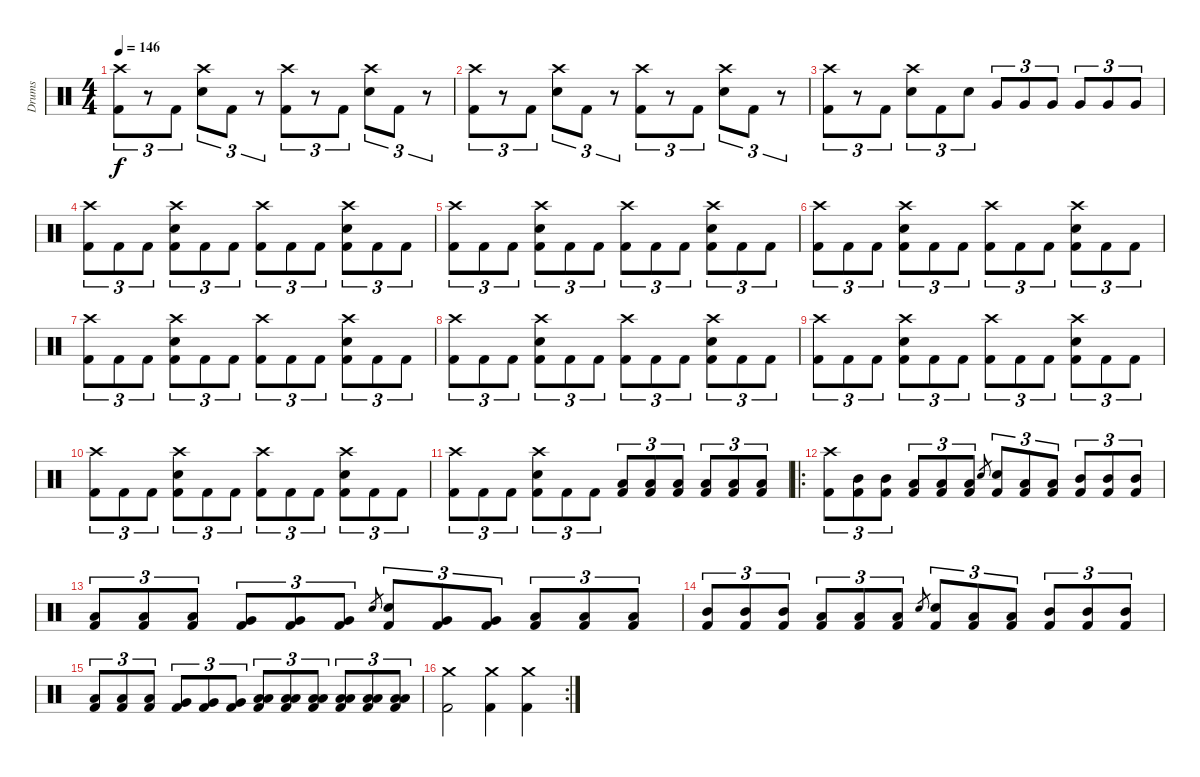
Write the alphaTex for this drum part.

\track ("Drums" "Drums") {instrument percussion}
\staff {score}
\articulation defaults
\ts (4 4)
\tempo 146
\clef neutral
\ks c
("Crash high (hit)" "Kick (hit) 2").8{tu (3 2) dy f} r.8{tu (3 2)} "Kick (hit) 2".8{tu (3 2)} ("Crash high (hit)" "Snare (hit) 2").8{tu (3 2)} "Kick (hit) 2".8{tu (3 2)} r.8{tu (3 2)} ("Crash high (hit)" "Kick (hit) 2").8{tu (3 2)} r.8{tu (3 2)} "Kick (hit) 2".8{tu (3 2)} ("Crash high (hit)" "Snare (hit) 2").8{tu (3 2)} "Kick (hit) 2".8{tu (3 2)} r.8{tu (3 2)} |
("Crash high (hit)" "Kick (hit) 2").8{tu (3 2)} r.8{tu (3 2)} "Kick (hit) 2".8{tu (3 2)} ("Crash high (hit)" "Snare (hit) 2").8{tu (3 2)} "Kick (hit) 2".8{tu (3 2)} r.8{tu (3 2)} ("Crash high (hit)" "Kick (hit) 2").8{tu (3 2)} r.8{tu (3 2)} "Kick (hit) 2".8{tu (3 2)} ("Crash high (hit)" "Snare (hit) 2").8{tu (3 2)} "Kick (hit) 2".8{tu (3 2)} r.8{tu (3 2)} |
("Crash high (hit)" "Kick (hit) 2").8{tu (3 2)} r.8{tu (3 2)} "Kick (hit) 2".8{tu (3 2)} ("Crash high (hit)" "Snare (hit) 2").8{tu (3 2)} "Kick (hit) 2".8{tu (3 2)} "Snare (hit) 2".8{tu (3 2)} "Very Low Tom (hit)".8{tu (3 2)} "Very Low Tom (hit)".8{tu (3 2)} "Very Low Tom (hit)".8{tu (3 2)} "Very Low Tom (hit)".8{tu (3 2)} "Very Low Tom (hit)".8{tu (3 2)} "Very Low Tom (hit)".8{tu (3 2)} |
("Crash high (hit)" "Kick (hit) 2").8{tu (3 2)} "Kick (hit) 2".8{tu (3 2)} "Kick (hit) 2".8{tu (3 2)} ("Crash high (hit)" "Snare (hit) 2" "Kick (hit) 2").8{tu (3 2)} "Kick (hit) 2".8{tu (3 2)} "Kick (hit) 2".8{tu (3 2)} ("Crash high (hit)" "Kick (hit) 2").8{tu (3 2)} "Kick (hit) 2".8{tu (3 2)} "Kick (hit) 2".8{tu (3 2)} ("Crash high (hit)" "Snare (hit) 2" "Kick (hit) 2").8{tu (3 2)} "Kick (hit) 2".8{tu (3 2)} "Kick (hit) 2".8{tu (3 2)} |
("Crash high (hit)" "Kick (hit) 2").8{tu (3 2)} "Kick (hit) 2".8{tu (3 2)} "Kick (hit) 2".8{tu (3 2)} ("Crash high (hit)" "Snare (hit) 2" "Kick (hit) 2").8{tu (3 2)} "Kick (hit) 2".8{tu (3 2)} "Kick (hit) 2".8{tu (3 2)} ("Crash high (hit)" "Kick (hit) 2").8{tu (3 2)} "Kick (hit) 2".8{tu (3 2)} "Kick (hit) 2".8{tu (3 2)} ("Crash high (hit)" "Snare (hit) 2" "Kick (hit) 2").8{tu (3 2)} "Kick (hit) 2".8{tu (3 2)} "Kick (hit) 2".8{tu (3 2)} |
("Crash high (hit)" "Kick (hit) 2").8{tu (3 2)} "Kick (hit) 2".8{tu (3 2)} "Kick (hit) 2".8{tu (3 2)} ("Crash high (hit)" "Snare (hit) 2" "Kick (hit) 2").8{tu (3 2)} "Kick (hit) 2".8{tu (3 2)} "Kick (hit) 2".8{tu (3 2)} ("Crash high (hit)" "Kick (hit) 2").8{tu (3 2)} "Kick (hit) 2".8{tu (3 2)} "Kick (hit) 2".8{tu (3 2)} ("Crash high (hit)" "Snare (hit) 2" "Kick (hit) 2").8{tu (3 2)} "Kick (hit) 2".8{tu (3 2)} "Kick (hit) 2".8{tu (3 2)} |
("Crash high (hit)" "Kick (hit) 2").8{tu (3 2)} "Kick (hit) 2".8{tu (3 2)} "Kick (hit) 2".8{tu (3 2)} ("Crash high (hit)" "Snare (hit) 2" "Kick (hit) 2").8{tu (3 2)} "Kick (hit) 2".8{tu (3 2)} "Kick (hit) 2".8{tu (3 2)} ("Crash high (hit)" "Kick (hit) 2").8{tu (3 2)} "Kick (hit) 2".8{tu (3 2)} "Kick (hit) 2".8{tu (3 2)} ("Crash high (hit)" "Snare (hit) 2" "Kick (hit) 2").8{tu (3 2)} "Kick (hit) 2".8{tu (3 2)} "Kick (hit) 2".8{tu (3 2)} |
("Crash high (hit)" "Kick (hit) 2").8{tu (3 2)} "Kick (hit) 2".8{tu (3 2)} "Kick (hit) 2".8{tu (3 2)} ("Crash high (hit)" "Snare (hit) 2" "Kick (hit) 2").8{tu (3 2)} "Kick (hit) 2".8{tu (3 2)} "Kick (hit) 2".8{tu (3 2)} ("Crash high (hit)" "Kick (hit) 2").8{tu (3 2)} "Kick (hit) 2".8{tu (3 2)} "Kick (hit) 2".8{tu (3 2)} ("Crash high (hit)" "Snare (hit) 2" "Kick (hit) 2").8{tu (3 2)} "Kick (hit) 2".8{tu (3 2)} "Kick (hit) 2".8{tu (3 2)} |
("Crash high (hit)" "Kick (hit) 2").8{tu (3 2)} "Kick (hit) 2".8{tu (3 2)} "Kick (hit) 2".8{tu (3 2)} ("Crash high (hit)" "Snare (hit) 2" "Kick (hit) 2").8{tu (3 2)} "Kick (hit) 2".8{tu (3 2)} "Kick (hit) 2".8{tu (3 2)} ("Crash high (hit)" "Kick (hit) 2").8{tu (3 2)} "Kick (hit) 2".8{tu (3 2)} "Kick (hit) 2".8{tu (3 2)} ("Crash high (hit)" "Snare (hit) 2" "Kick (hit) 2").8{tu (3 2)} "Kick (hit) 2".8{tu (3 2)} "Kick (hit) 2".8{tu (3 2)} |
("Crash high (hit)" "Kick (hit) 2").8{tu (3 2)} "Kick (hit) 2".8{tu (3 2)} "Kick (hit) 2".8{tu (3 2)} ("Crash high (hit)" "Snare (hit) 2" "Kick (hit) 2").8{tu (3 2)} "Kick (hit) 2".8{tu (3 2)} "Kick (hit) 2".8{tu (3 2)} ("Crash high (hit)" "Kick (hit) 2").8{tu (3 2)} "Kick (hit) 2".8{tu (3 2)} "Kick (hit) 2".8{tu (3 2)} ("Crash high (hit)" "Snare (hit) 2" "Kick (hit) 2").8{tu (3 2)} "Kick (hit) 2".8{tu (3 2)} "Kick (hit) 2".8{tu (3 2)} |
("Crash high (hit)" "Kick (hit) 2").8{tu (3 2)} "Kick (hit) 2".8{tu (3 2)} "Kick (hit) 2".8{tu (3 2)} ("Crash high (hit)" "Snare (hit) 2" "Kick (hit) 2").8{tu (3 2)} "Kick (hit) 2".8{tu (3 2)} "Kick (hit) 2".8{tu (3 2)} ("Low Tom (hit)" "Kick (hit) 2").8{tu (3 2)} ("Low Tom (hit)" "Kick (hit) 2").8{tu (3 2)} ("Low Tom (hit)" "Kick (hit) 2").8{tu (3 2)} ("Low Tom (hit)" "Kick (hit) 2").8{tu (3 2)} ("Low Tom (hit)" "Kick (hit) 2").8{tu (3 2)} ("Low Tom (hit)" "Kick (hit) 2").8{tu (3 2)} |
\ro
("Crash high (hit)" "Kick (hit) 2").8{tu (3 2)} ("Mid Tom (hit)" "Kick (hit) 2").8{tu (3 2)} ("Mid Tom (hit)" "Kick (hit) 2").8{tu (3 2)} ("Low Tom (hit)" "Kick (hit) 2").8{tu (3 2)} ("Low Tom (hit)" "Kick (hit) 2").8{tu (3 2)} ("Low Tom (hit)" "Kick (hit) 2").8{tu (3 2)} "Snare (hit) 2".8{gr} ("Snare (hit) 2" "Kick (hit) 2").8{tu (3 2)} ("Low Tom (hit)" "Kick (hit) 2").8{tu (3 2)} ("Low Tom (hit)" "Kick (hit) 2").8{tu (3 2)} ("Mid Tom (hit)" "Kick (hit) 2").8{tu (3 2)} ("Mid Tom (hit)" "Kick (hit) 2").8{tu (3 2)} ("Mid Tom (hit)" "Kick (hit) 2").8{tu (3 2)} |
("Low Tom (hit)" "Kick (hit) 2").8{tu (3 2)} ("Low Tom (hit)" "Kick (hit) 2").8{tu (3 2)} ("Low Tom (hit)" "Kick (hit) 2").8{tu (3 2)} ("Very Low Tom (hit)" "Kick (hit) 2").8{tu (3 2)} ("Very Low Tom (hit)" "Kick (hit) 2").8{tu (3 2)} ("Very Low Tom (hit)" "Kick (hit) 2").8{tu (3 2)} "Snare (hit) 2".8{gr} ("Snare (hit) 2" "Kick (hit) 2").8{tu (3 2)} ("Very Low Tom (hit)" "Kick (hit) 2").8{tu (3 2)} ("Very Low Tom (hit)" "Kick (hit) 2").8{tu (3 2)} ("Low Tom (hit)" "Kick (hit) 2").8{tu (3 2)} ("Low Tom (hit)" "Kick (hit) 2").8{tu (3 2)} ("Low Tom (hit)" "Kick (hit) 2").8{tu (3 2)} |
("Mid Tom (hit)" "Kick (hit) 2").8{tu (3 2)} ("Mid Tom (hit)" "Kick (hit) 2").8{tu (3 2)} ("Mid Tom (hit)" "Kick (hit) 2").8{tu (3 2)} ("Low Tom (hit)" "Kick (hit) 2").8{tu (3 2)} ("Low Tom (hit)" "Kick (hit) 2").8{tu (3 2)} ("Low Tom (hit)" "Kick (hit) 2").8{tu (3 2)} "Snare (hit) 2".8{gr} ("Snare (hit) 2" "Kick (hit) 2").8{tu (3 2)} ("Low Tom (hit)" "Kick (hit) 2").8{tu (3 2)} ("Low Tom (hit)" "Kick (hit) 2").8{tu (3 2)} ("Mid Tom (hit)" "Kick (hit) 2").8{tu (3 2)} ("Mid Tom (hit)" "Kick (hit) 2").8{tu (3 2)} ("Mid Tom (hit)" "Kick (hit) 2").8{tu (3 2)} |
("Low Tom (hit)" "Kick (hit) 2").8{tu (3 2)} ("Low Tom (hit)" "Kick (hit) 2").8{tu (3 2)} ("Low Tom (hit)" "Kick (hit) 2").8{tu (3 2)} ("Very Low Tom (hit)" "Kick (hit) 2").8{tu (3 2)} ("Very Low Tom (hit)" "Kick (hit) 2").8{tu (3 2)} ("Very Low Tom (hit)" "Kick (hit) 2").8{tu (3 2)} ("Low Floor Tom (hit)" "Low Floor Tom (hit)" "Kick (hit) 2").8{tu (3 2)} ("Low Floor Tom (hit)" "Low Floor Tom (hit)" "Kick (hit) 2").8{tu (3 2)} ("Low Floor Tom (hit)" "Low Floor Tom (hit)" "Kick (hit) 2").8{tu (3 2)} ("Low Floor Tom (hit)" "Low Floor Tom (hit)" "Kick (hit) 2").8{tu (3 2)} ("Low Floor Tom (hit)" "Low Floor Tom (hit)" "Kick (hit) 2").8{tu (3 2)} ("Low Floor Tom (hit)" "Low Floor Tom (hit)" "Kick (hit) 2").8{tu (3 2)} |
\rc 2
("Crash medium (hit)" "Kick (hit) 2").2 ("Crash medium (hit)" "Kick (hit) 2").4 ("Crash medium (hit)" "Kick (hit) 2").4
